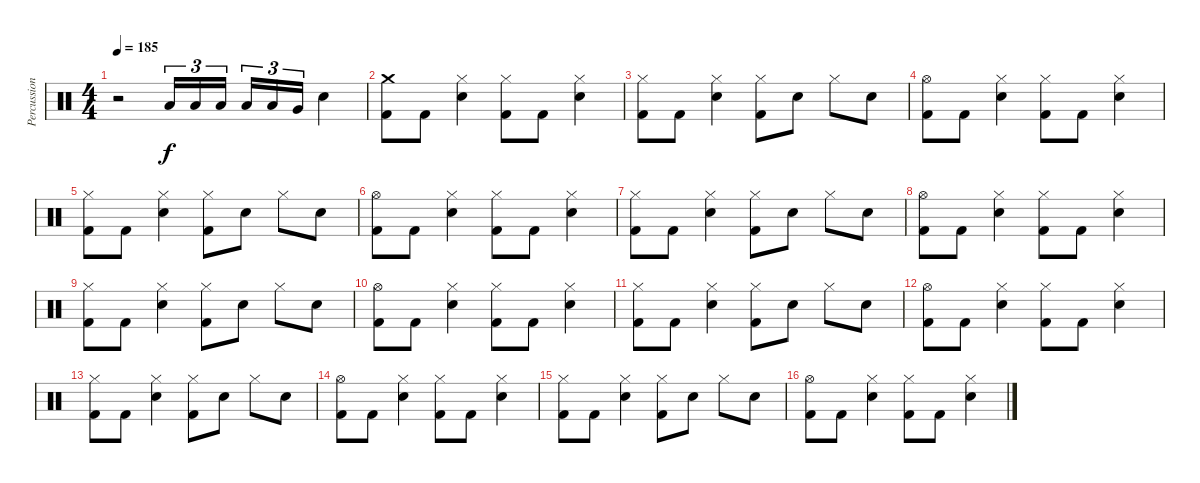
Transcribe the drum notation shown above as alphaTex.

\track ("Percussions" "Percussion") {instrument percussion}
\staff {score}
\articulation defaults
\ts (4 4)
\tempo 185
\clef neutral
\ks c
r.2{dy f} "Low Tom (hit)".16{tu (3 2)} "Low Tom (hit)".16{tu (3 2)} "Low Tom (hit)".16{tu (3 2)} "Low Tom (hit)".16{tu (3 2)} "Low Tom (hit)".16{tu (3 2)} "Very Low Tom (hit)".16{tu (3 2)} "Electric Snare (hit)".4 |
("Kick (hit) 2" "Crash medium (hit)").8 "Kick (hit) 2".8 ("Electric Snare (hit)" "Hi-Hat (closed)").4 ("Kick (hit) 2" "Hi-Hat (closed)").8 "Kick (hit) 2".8 ("Electric Snare (hit)" "Hi-Hat (closed)").4 |
("Kick (hit) 2" "Hi-Hat (closed)").8 "Kick (hit) 2".8 ("Electric Snare (hit)" "Hi-Hat (closed)").4 ("Kick (hit) 2" "Hi-Hat (closed)").8 "Electric Snare (hit)".8 "Hi-Hat (closed)".8 "Electric Snare (hit)".8 |
("Kick (hit) 2" "Hi-Hat (open)").8 "Kick (hit) 2".8 ("Electric Snare (hit)" "Hi-Hat (closed)").4 ("Kick (hit) 2" "Hi-Hat (closed)").8 "Kick (hit) 2".8 ("Electric Snare (hit)" "Hi-Hat (closed)").4 |
("Kick (hit) 2" "Hi-Hat (closed)").8 "Kick (hit) 2".8 ("Electric Snare (hit)" "Hi-Hat (closed)").4 ("Kick (hit) 2" "Hi-Hat (closed)").8 "Electric Snare (hit)".8 "Hi-Hat (closed)".8 "Electric Snare (hit)".8 |
("Kick (hit) 2" "Hi-Hat (open)").8 "Kick (hit) 2".8 ("Electric Snare (hit)" "Hi-Hat (closed)").4 ("Kick (hit) 2" "Hi-Hat (closed)").8 "Kick (hit) 2".8 ("Electric Snare (hit)" "Hi-Hat (closed)").4 |
("Kick (hit) 2" "Hi-Hat (closed)").8 "Kick (hit) 2".8 ("Electric Snare (hit)" "Hi-Hat (closed)").4 ("Kick (hit) 2" "Hi-Hat (closed)").8 "Electric Snare (hit)".8 "Hi-Hat (closed)".8 "Electric Snare (hit)".8 |
("Kick (hit) 2" "Hi-Hat (open)").8 "Kick (hit) 2".8 ("Electric Snare (hit)" "Hi-Hat (closed)").4 ("Kick (hit) 2" "Hi-Hat (closed)").8 "Kick (hit) 2".8 ("Electric Snare (hit)" "Hi-Hat (closed)").4 |
("Kick (hit) 2" "Hi-Hat (closed)").8 "Kick (hit) 2".8 ("Electric Snare (hit)" "Hi-Hat (closed)").4 ("Kick (hit) 2" "Hi-Hat (closed)").8 "Electric Snare (hit)".8 "Hi-Hat (closed)".8 "Electric Snare (hit)".8 |
("Kick (hit) 2" "Hi-Hat (open)").8 "Kick (hit) 2".8 ("Electric Snare (hit)" "Hi-Hat (closed)").4 ("Kick (hit) 2" "Hi-Hat (closed)").8 "Kick (hit) 2".8 ("Electric Snare (hit)" "Hi-Hat (closed)").4 |
("Kick (hit) 2" "Hi-Hat (closed)").8 "Kick (hit) 2".8 ("Electric Snare (hit)" "Hi-Hat (closed)").4 ("Kick (hit) 2" "Hi-Hat (closed)").8 "Electric Snare (hit)".8 "Hi-Hat (closed)".8 "Electric Snare (hit)".8 |
("Kick (hit) 2" "Hi-Hat (open)").8 "Kick (hit) 2".8 ("Electric Snare (hit)" "Hi-Hat (closed)").4 ("Kick (hit) 2" "Hi-Hat (closed)").8 "Kick (hit) 2".8 ("Electric Snare (hit)" "Hi-Hat (closed)").4 |
("Kick (hit) 2" "Hi-Hat (closed)").8 "Kick (hit) 2".8 ("Electric Snare (hit)" "Hi-Hat (closed)").4 ("Kick (hit) 2" "Hi-Hat (closed)").8 "Electric Snare (hit)".8 "Hi-Hat (closed)".8 "Electric Snare (hit)".8 |
("Kick (hit) 2" "Hi-Hat (open)").8 "Kick (hit) 2".8 ("Electric Snare (hit)" "Hi-Hat (closed)").4 ("Kick (hit) 2" "Hi-Hat (closed)").8 "Kick (hit) 2".8 ("Electric Snare (hit)" "Hi-Hat (closed)").4 |
("Kick (hit) 2" "Hi-Hat (closed)").8 "Kick (hit) 2".8 ("Electric Snare (hit)" "Hi-Hat (closed)").4 ("Kick (hit) 2" "Hi-Hat (closed)").8 "Electric Snare (hit)".8 "Hi-Hat (closed)".8 "Electric Snare (hit)".8 |
("Kick (hit) 2" "Hi-Hat (open)").8 "Kick (hit) 2".8 ("Electric Snare (hit)" "Hi-Hat (closed)").4 ("Kick (hit) 2" "Hi-Hat (closed)").8 "Kick (hit) 2".8 ("Electric Snare (hit)" "Hi-Hat (closed)").4
